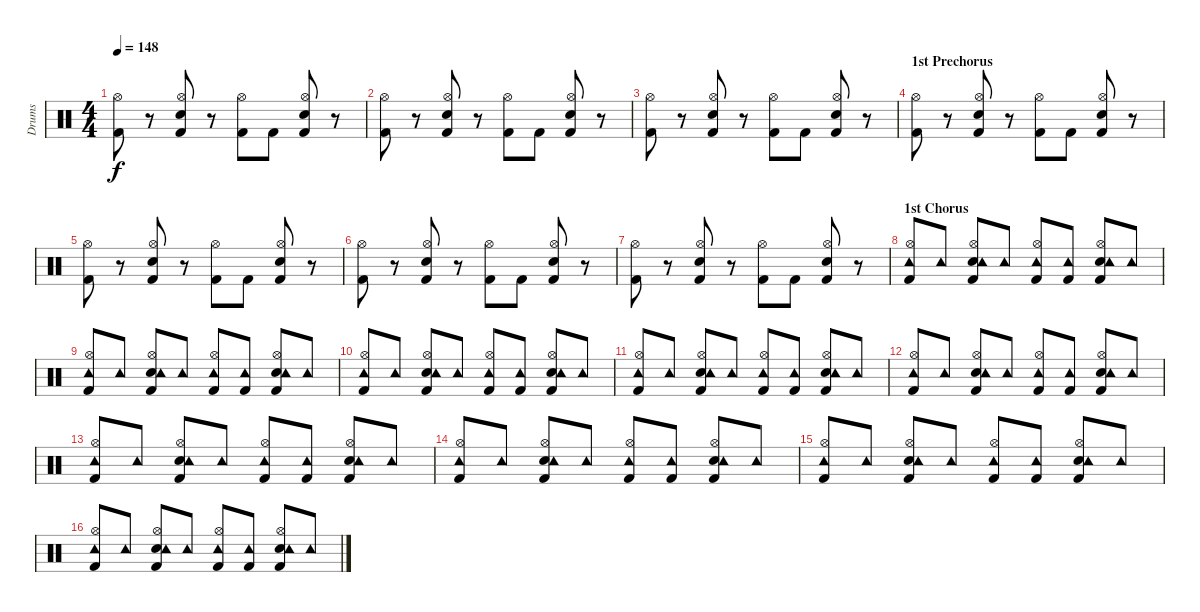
\track ("Drums" "Drums") {instrument percussion}
\staff {score}
\articulation defaults
\ts (4 4)
\tempo 148
\clef neutral
\ks c
("Kick (hit) 2" "Hi-Hat (open)").8{dy f} r.8 ("Kick (hit) 2" "Electric Snare (hit)" "Hi-Hat (open)").8 r.8 ("Kick (hit) 2" "Hi-Hat (open)").8 "Kick (hit) 2".8 ("Kick (hit) 2" "Electric Snare (hit)" "Hi-Hat (open)").8 r.8 |
("Kick (hit) 2" "Hi-Hat (open)").8 r.8 ("Kick (hit) 2" "Electric Snare (hit)" "Hi-Hat (open)").8 r.8 ("Kick (hit) 2" "Hi-Hat (open)").8 "Kick (hit) 2".8 ("Kick (hit) 2" "Electric Snare (hit)" "Hi-Hat (open)").8 r.8 |
("Kick (hit) 2" "Hi-Hat (open)").8 r.8 ("Kick (hit) 2" "Electric Snare (hit)" "Hi-Hat (open)").8 r.8 ("Kick (hit) 2" "Hi-Hat (open)").8 "Kick (hit) 2".8 ("Kick (hit) 2" "Electric Snare (hit)" "Hi-Hat (open)").8 r.8 |
\section ("" "1st Prechorus")
("Kick (hit) 2" "Hi-Hat (open)").8 r.8 ("Kick (hit) 2" "Electric Snare (hit)" "Hi-Hat (open)").8 r.8 ("Kick (hit) 2" "Hi-Hat (open)").8 "Kick (hit) 2".8 ("Kick (hit) 2" "Electric Snare (hit)" "Hi-Hat (open)").8 r.8 |
("Kick (hit) 2" "Hi-Hat (open)").8 r.8 ("Kick (hit) 2" "Electric Snare (hit)" "Hi-Hat (open)").8 r.8 ("Kick (hit) 2" "Hi-Hat (open)").8 "Kick (hit) 2".8 ("Kick (hit) 2" "Electric Snare (hit)" "Hi-Hat (open)").8 r.8 |
("Kick (hit) 2" "Hi-Hat (open)").8 r.8 ("Kick (hit) 2" "Electric Snare (hit)" "Hi-Hat (open)").8 r.8 ("Kick (hit) 2" "Hi-Hat (open)").8 "Kick (hit) 2".8 ("Kick (hit) 2" "Electric Snare (hit)" "Hi-Hat (open)").8 r.8 |
("Kick (hit) 2" "Hi-Hat (open)").8 r.8 ("Kick (hit) 2" "Electric Snare (hit)" "Hi-Hat (open)").8 r.8 ("Kick (hit) 2" "Hi-Hat (open)").8 "Kick (hit) 2".8 ("Kick (hit) 2" "Electric Snare (hit)" "Hi-Hat (open)").8 r.8 |
\section ("" "1st Chorus")
("Kick (hit) 2" "Tambourine (hit)" "Hi-Hat (open)").8 "Tambourine (hit)".8 ("Kick (hit) 2" "Electric Snare (hit)" "Tambourine (hit)" "Hi-Hat (open)").8 "Tambourine (hit)".8 ("Kick (hit) 2" "Tambourine (hit)" "Hi-Hat (open)").8 ("Kick (hit) 2" "Tambourine (hit)").8 ("Kick (hit) 2" "Electric Snare (hit)" "Tambourine (hit)" "Hi-Hat (open)").8 "Tambourine (hit)".8 |
("Kick (hit) 2" "Tambourine (hit)" "Hi-Hat (open)").8 "Tambourine (hit)".8 ("Kick (hit) 2" "Electric Snare (hit)" "Tambourine (hit)" "Hi-Hat (open)").8 "Tambourine (hit)".8 ("Kick (hit) 2" "Tambourine (hit)" "Hi-Hat (open)").8 ("Kick (hit) 2" "Tambourine (hit)").8 ("Kick (hit) 2" "Electric Snare (hit)" "Tambourine (hit)" "Hi-Hat (open)").8 "Tambourine (hit)".8 |
("Kick (hit) 2" "Tambourine (hit)" "Hi-Hat (open)").8 "Tambourine (hit)".8 ("Kick (hit) 2" "Electric Snare (hit)" "Tambourine (hit)" "Hi-Hat (open)").8 "Tambourine (hit)".8 ("Kick (hit) 2" "Tambourine (hit)" "Hi-Hat (open)").8 ("Kick (hit) 2" "Tambourine (hit)").8 ("Kick (hit) 2" "Electric Snare (hit)" "Tambourine (hit)" "Hi-Hat (open)").8 "Tambourine (hit)".8 |
("Kick (hit) 2" "Tambourine (hit)" "Hi-Hat (open)").8 "Tambourine (hit)".8 ("Kick (hit) 2" "Electric Snare (hit)" "Tambourine (hit)" "Hi-Hat (open)").8 "Tambourine (hit)".8 ("Kick (hit) 2" "Tambourine (hit)" "Hi-Hat (open)").8 ("Kick (hit) 2" "Tambourine (hit)").8 ("Kick (hit) 2" "Electric Snare (hit)" "Tambourine (hit)" "Hi-Hat (open)").8 "Tambourine (hit)".8 |
("Kick (hit) 2" "Tambourine (hit)" "Hi-Hat (open)").8 "Tambourine (hit)".8 ("Kick (hit) 2" "Electric Snare (hit)" "Tambourine (hit)" "Hi-Hat (open)").8 "Tambourine (hit)".8 ("Kick (hit) 2" "Tambourine (hit)" "Hi-Hat (open)").8 ("Kick (hit) 2" "Tambourine (hit)").8 ("Kick (hit) 2" "Electric Snare (hit)" "Tambourine (hit)" "Hi-Hat (open)").8 "Tambourine (hit)".8 |
("Kick (hit) 2" "Tambourine (hit)" "Hi-Hat (open)").8 "Tambourine (hit)".8 ("Kick (hit) 2" "Electric Snare (hit)" "Tambourine (hit)" "Hi-Hat (open)").8 "Tambourine (hit)".8 ("Kick (hit) 2" "Tambourine (hit)" "Hi-Hat (open)").8 ("Kick (hit) 2" "Tambourine (hit)").8 ("Kick (hit) 2" "Electric Snare (hit)" "Tambourine (hit)" "Hi-Hat (open)").8 "Tambourine (hit)".8 |
("Kick (hit) 2" "Tambourine (hit)" "Hi-Hat (open)").8 "Tambourine (hit)".8 ("Kick (hit) 2" "Electric Snare (hit)" "Tambourine (hit)" "Hi-Hat (open)").8 "Tambourine (hit)".8 ("Kick (hit) 2" "Tambourine (hit)" "Hi-Hat (open)").8 ("Kick (hit) 2" "Tambourine (hit)").8 ("Kick (hit) 2" "Electric Snare (hit)" "Tambourine (hit)" "Hi-Hat (open)").8 "Tambourine (hit)".8 |
("Kick (hit) 2" "Tambourine (hit)" "Hi-Hat (open)").8 "Tambourine (hit)".8 ("Kick (hit) 2" "Electric Snare (hit)" "Tambourine (hit)" "Hi-Hat (open)").8 "Tambourine (hit)".8 ("Kick (hit) 2" "Tambourine (hit)" "Hi-Hat (open)").8 ("Kick (hit) 2" "Tambourine (hit)").8 ("Kick (hit) 2" "Electric Snare (hit)" "Tambourine (hit)" "Hi-Hat (open)").8 "Tambourine (hit)".8 |
("Kick (hit) 2" "Tambourine (hit)" "Hi-Hat (open)").8 "Tambourine (hit)".8 ("Kick (hit) 2" "Electric Snare (hit)" "Tambourine (hit)" "Hi-Hat (open)").8 "Tambourine (hit)".8 ("Kick (hit) 2" "Tambourine (hit)" "Hi-Hat (open)").8 ("Kick (hit) 2" "Tambourine (hit)").8 ("Kick (hit) 2" "Electric Snare (hit)" "Tambourine (hit)" "Hi-Hat (open)").8 "Tambourine (hit)".8
